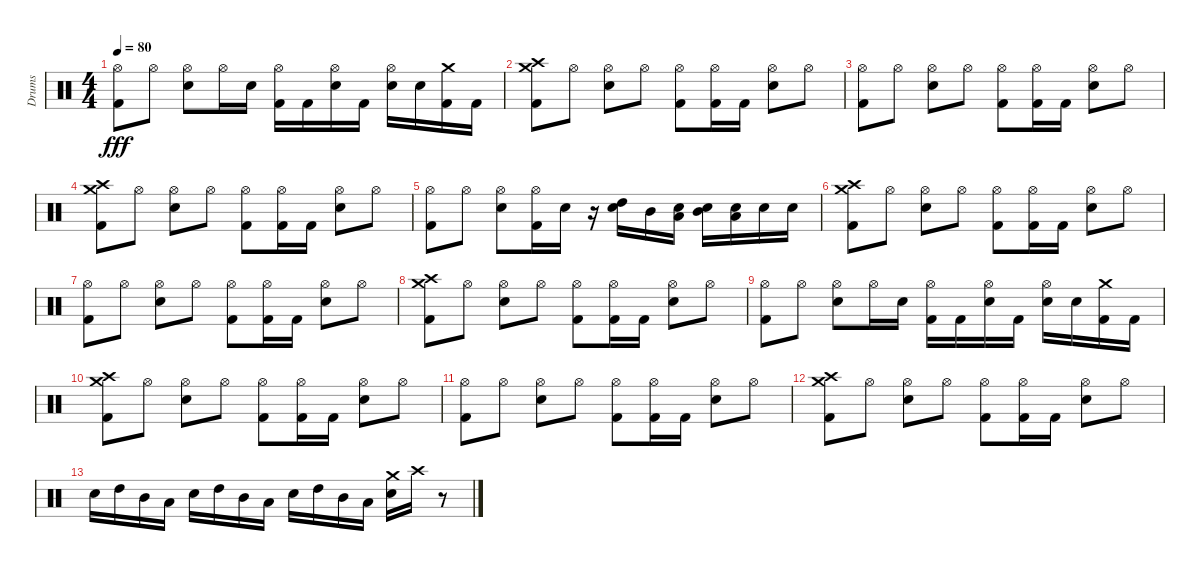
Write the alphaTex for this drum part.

\track ("Drums" "Drums") {instrument percussion}
\staff {score}
\articulation defaults
\ts (4 4)
\tempo 80
\clef neutral
\ks c
("Hi-Hat (open)" "Kick (hit) 2").8{dy fff} "Hi-Hat (open)".8 ("Hi-Hat (open)" "Electric Snare (hit)").8 "Hi-Hat (open)".16 "Electric Snare (hit)".16 ("Hi-Hat (open)" "Kick (hit) 2").16 "Kick (hit) 2".16 ("Hi-Hat (open)" "Electric Snare (hit)").16 "Kick (hit) 2".16 ("Hi-Hat (open)" "Electric Snare (hit)").16 "Electric Snare (hit)".16 ("Crash medium (hit)" "Kick (hit) 2").16 "Kick (hit) 2".16 |
("Crash high (hit)" "Crash medium (hit)" "Kick (hit) 2").8 "Hi-Hat (open)".8 ("Hi-Hat (open)" "Electric Snare (hit)").8 "Hi-Hat (open)".8 ("Hi-Hat (open)" "Kick (hit) 2").8 ("Hi-Hat (open)" "Kick (hit) 2").16 "Kick (hit) 2".16 ("Hi-Hat (open)" "Electric Snare (hit)").8 "Hi-Hat (open)".8 |
("Hi-Hat (open)" "Kick (hit) 2").8 "Hi-Hat (open)".8 ("Hi-Hat (open)" "Electric Snare (hit)").8 "Hi-Hat (open)".8 ("Hi-Hat (open)" "Kick (hit) 2").8 ("Hi-Hat (open)" "Kick (hit) 2").16 "Kick (hit) 2".16 ("Hi-Hat (open)" "Electric Snare (hit)").8 "Hi-Hat (open)".8 |
("Crash high (hit)" "Crash medium (hit)" "Kick (hit) 2").8 "Hi-Hat (open)".8 ("Hi-Hat (open)" "Electric Snare (hit)").8 "Hi-Hat (open)".8 ("Hi-Hat (open)" "Kick (hit) 2").8 ("Hi-Hat (open)" "Kick (hit) 2").16 "Kick (hit) 2".16 ("Hi-Hat (open)" "Electric Snare (hit)").8 "Hi-Hat (open)".8 |
("Hi-Hat (open)" "Kick (hit) 2").8 "Hi-Hat (open)".8 ("Hi-Hat (open)" "Electric Snare (hit)").8 ("Hi-Hat (open)" "Kick (hit) 2").16 "Electric Snare (hit)".16 r.16 ("High Tom (hit)" "Electric Snare (hit)").16 "Mid Tom (hit)".16 ("Low Tom (hit)" "Electric Snare (hit)").16 ("Mid Tom (hit)" "Electric Snare (hit)").16 ("Low Tom (hit)" "Electric Snare (hit)").16 "Electric Snare (hit)".16 "Electric Snare (hit)".16 |
("Crash high (hit)" "Crash medium (hit)" "Kick (hit) 2").8 "Hi-Hat (open)".8 ("Hi-Hat (open)" "Electric Snare (hit)").8 "Hi-Hat (open)".8 ("Hi-Hat (open)" "Kick (hit) 2").8 ("Hi-Hat (open)" "Kick (hit) 2").16 "Kick (hit) 2".16 ("Hi-Hat (open)" "Electric Snare (hit)").8 "Hi-Hat (open)".8 |
("Hi-Hat (open)" "Kick (hit) 2").8 "Hi-Hat (open)".8 ("Hi-Hat (open)" "Electric Snare (hit)").8 "Hi-Hat (open)".8 ("Hi-Hat (open)" "Kick (hit) 2").8 ("Hi-Hat (open)" "Kick (hit) 2").16 "Kick (hit) 2".16 ("Hi-Hat (open)" "Electric Snare (hit)").8 "Hi-Hat (open)".8 |
("Crash high (hit)" "Crash medium (hit)" "Kick (hit) 2").8 "Hi-Hat (open)".8 ("Hi-Hat (open)" "Electric Snare (hit)").8 "Hi-Hat (open)".8 ("Hi-Hat (open)" "Kick (hit) 2").8 ("Hi-Hat (open)" "Kick (hit) 2").16 "Kick (hit) 2".16 ("Hi-Hat (open)" "Electric Snare (hit)").8 "Hi-Hat (open)".8 |
("Hi-Hat (open)" "Kick (hit) 2").8 "Hi-Hat (open)".8 ("Hi-Hat (open)" "Electric Snare (hit)").8 "Hi-Hat (open)".16 "Electric Snare (hit)".16 ("Hi-Hat (open)" "Kick (hit) 2").16 "Kick (hit) 2".16 ("Hi-Hat (open)" "Electric Snare (hit)").16 "Kick (hit) 2".16 ("Hi-Hat (open)" "Electric Snare (hit)").16 "Electric Snare (hit)".16 ("Crash medium (hit)" "Kick (hit) 2").16 "Kick (hit) 2".16 |
("Crash high (hit)" "Crash medium (hit)" "Kick (hit) 2").8 "Hi-Hat (open)".8 ("Hi-Hat (open)" "Electric Snare (hit)").8 "Hi-Hat (open)".8 ("Hi-Hat (open)" "Kick (hit) 2").8 ("Hi-Hat (open)" "Kick (hit) 2").16 "Kick (hit) 2".16 ("Hi-Hat (open)" "Electric Snare (hit)").8 "Hi-Hat (open)".8 |
("Hi-Hat (open)" "Kick (hit) 2").8 "Hi-Hat (open)".8 ("Hi-Hat (open)" "Electric Snare (hit)").8 "Hi-Hat (open)".8 ("Hi-Hat (open)" "Kick (hit) 2").8 ("Hi-Hat (open)" "Kick (hit) 2").16 "Kick (hit) 2".16 ("Hi-Hat (open)" "Electric Snare (hit)").8 "Hi-Hat (open)".8 |
("Crash high (hit)" "Crash medium (hit)" "Kick (hit) 2").8 "Hi-Hat (open)".8 ("Hi-Hat (open)" "Electric Snare (hit)").8 "Hi-Hat (open)".8 ("Hi-Hat (open)" "Kick (hit) 2").8 ("Hi-Hat (open)" "Kick (hit) 2").16 "Kick (hit) 2".16 ("Hi-Hat (open)" "Electric Snare (hit)").8 "Hi-Hat (open)".8 |
"Electric Snare (hit)".16 "High Tom (hit)".16 "Mid Tom (hit)".16 "Low Tom (hit)".16 "Electric Snare (hit)".16 "High Tom (hit)".16 "Mid Tom (hit)".16 "Low Tom (hit)".16 "Electric Snare (hit)".16 "High Tom (hit)".16 "Mid Tom (hit)".16 "Low Tom (hit)".16 ("Crash medium (hit)" "Electric Snare (hit)").16 "Crash high (hit)".16 r.8
